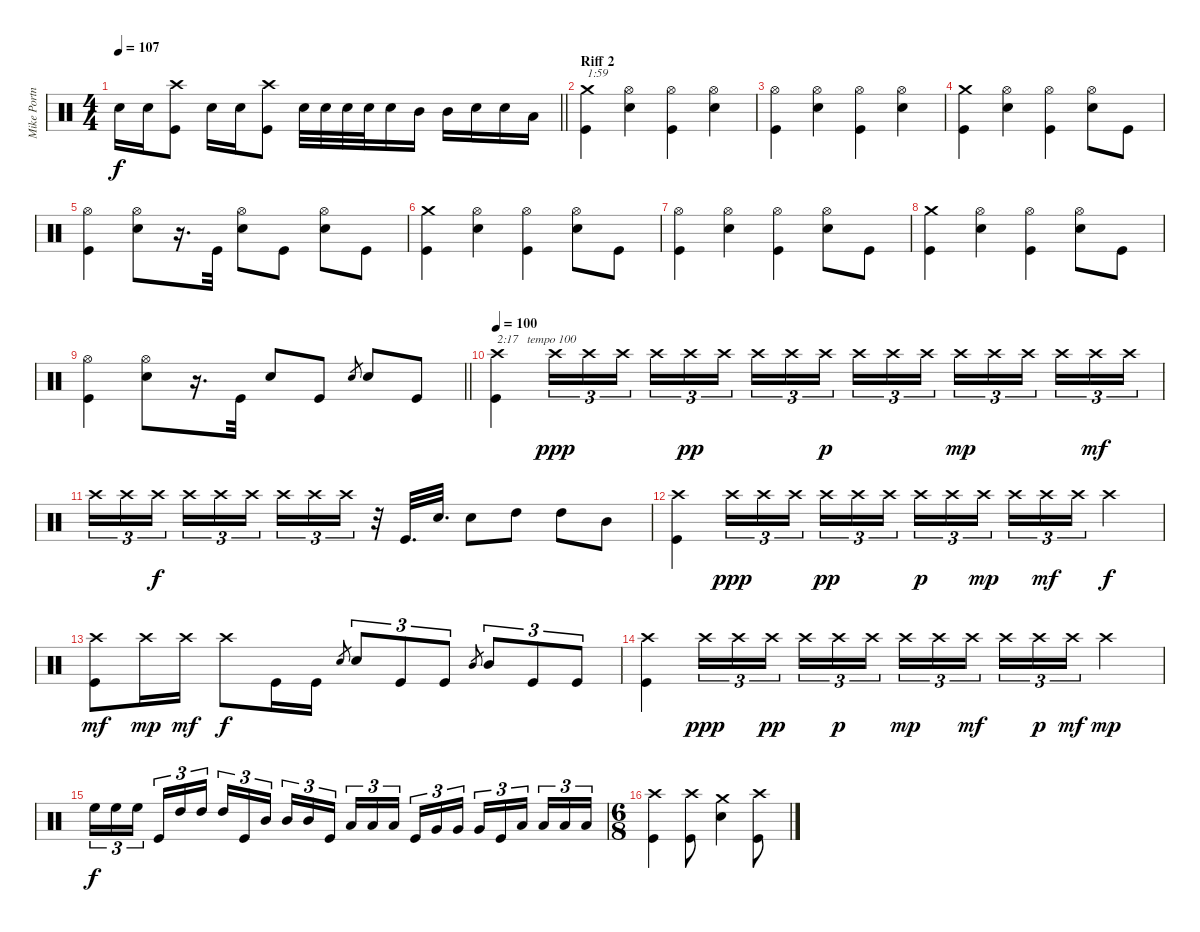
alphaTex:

\track ("Mike Portnoy" "Mike Portn") {instrument percussion}
\staff {score}
\articulation defaults
\ts (4 4)
\tempo 107
\clef neutral
\barLineRight lightlight
\ks c "Snare (hit) 2".16{dy f} "Snare (hit) 2".16
("Crash high (hit)" "Kick (hit)").8 "Snare (hit) 2".16 "Snare (hit) 2".16 ("Crash high (hit)" "Kick (hit)").8 "Snare (hit) 2".32 "Snare (hit) 2".32 "Snare (hit) 2".32 "Snare (hit) 2".32 "Snare (hit) 2".16 "Mid Tom (hit)".16 "Mid Tom (hit)".16 "Snare (hit) 2".16 "Snare (hit) 2".16 "Low Tom (hit)".16 |
\section ("" "Riff 2")
("Crash medium (hit)" "Kick (hit)").4{txt "1:59"} ("Hi-Hat (open)" "Snare (hit) 2").4 ("Hi-Hat (open)" "Kick (hit)").4 ("Hi-Hat (open)" "Snare (hit) 2").4 |
("Hi-Hat (open)" "Kick (hit)").4 ("Hi-Hat (open)" "Snare (hit) 2").4 ("Hi-Hat (open)" "Kick (hit)").4 ("Hi-Hat (open)" "Snare (hit) 2").4 |
("Crash medium (hit)" "Kick (hit)").4 ("Hi-Hat (open)" "Snare (hit) 2").4 ("Hi-Hat (open)" "Kick (hit)").4 ("Hi-Hat (open)" "Snare (hit) 2").8 "Kick (hit)".8 |
("Hi-Hat (open)" "Kick (hit)").4 ("Hi-Hat (open)" "Snare (hit) 2").8 r.16{d} "Kick (hit)".32 ("Hi-Hat (open)" "Snare (hit) 2").8 "Kick (hit)".8 ("Hi-Hat (open)" "Snare (hit) 2").8 "Kick (hit)".8 |
("Crash medium (hit)" "Kick (hit)").4 ("Hi-Hat (open)" "Snare (hit) 2").4 ("Hi-Hat (open)" "Kick (hit)").4 ("Hi-Hat (open)" "Snare (hit) 2").8 "Kick (hit)".8 |
("Hi-Hat (open)" "Kick (hit)").4 ("Hi-Hat (open)" "Snare (hit) 2").4 ("Hi-Hat (open)" "Kick (hit)").4 ("Hi-Hat (open)" "Snare (hit) 2").8 "Kick (hit)".8 |
("Crash medium (hit)" "Kick (hit)").4 ("Hi-Hat (open)" "Snare (hit) 2").4 ("Hi-Hat (open)" "Kick (hit)").4 ("Hi-Hat (open)" "Snare (hit) 2").8 "Kick (hit)".8 |
\barLineRight lightlight
("Hi-Hat (open)" "Kick (hit)").4 ("Hi-Hat (open)" "Snare (hit) 2").8 r.16{d} "Kick (hit)".32 "Snare (hit) 2".8 "Kick (hit)".8 "Snare (hit) 2".8{gr} "Snare (hit) 2".8 "Kick (hit)".8 |
\section ("" "")
\tempo 100
("Crash high (hit)" "Kick (hit)").4{txt "2:17   tempo 100"} "Crash high (hit)".16{tu (3 2) dy ppp} "Crash high (hit)".16{tu (3 2)} "Crash high (hit)".16{tu (3 2)} "Crash high (hit)".16{tu (3 2)} "Crash high (hit)".16{tu (3 2) dy pp} "Crash high (hit)".16{tu (3 2)} "Crash high (hit)".16{tu (3 2)} "Crash high (hit)".16{tu (3 2)} "Crash high (hit)".16{tu (3 2) dy p} "Crash high (hit)".16{tu (3 2)} "Crash high (hit)".16{tu (3 2)} "Crash high (hit)".16{tu (3 2)} "Crash high (hit)".16{tu (3 2) dy mp} "Crash high (hit)".16{tu (3 2)} "Crash high (hit)".16{tu (3 2)} "Crash high (hit)".16{tu (3 2)} "Crash high (hit)".16{tu (3 2) dy mf} "Crash high (hit)".16{tu (3 2)} |
"Crash high (hit)".16{tu (3 2)} "Crash high (hit)".16{tu (3 2)} "Crash high (hit)".16{tu (3 2) dy f} "Crash high (hit)".16{tu (3 2)} "Crash high (hit)".16{tu (3 2)} "Crash high (hit)".16{tu (3 2)} "Crash high (hit)".16{tu (3 2)} "Crash high (hit)".16{tu (3 2)} "Crash high (hit)".16{tu (3 2)} r.32 "Kick (hit)".32{d} "Snare (hit) 2".32{d} "Snare (hit) 2".8 "High Tom (hit)".8 "High Tom (hit)".8 "Mid Tom (hit)".8 |
("Crash high (hit)" "Kick (hit)").4 "Crash high (hit)".16{tu (3 2) dy ppp} "Crash high (hit)".16{tu (3 2)} "Crash high (hit)".16{tu (3 2)} "Crash high (hit)".16{tu (3 2) dy pp} "Crash high (hit)".16{tu (3 2)} "Crash high (hit)".16{tu (3 2)} "Crash high (hit)".16{tu (3 2) dy p} "Crash high (hit)".16{tu (3 2)} "Crash high (hit)".16{tu (3 2) dy mp} "Crash high (hit)".16{tu (3 2)} "Crash high (hit)".16{tu (3 2) dy mf} "Crash high (hit)".16{tu (3 2)} "Crash high (hit)".4{dy f} |
("Crash high (hit)" "Kick (hit)").8{dy mf} "Crash high (hit)".16{dy mp} "Crash high (hit)".16{dy mf} "Crash high (hit)".8{dy f} "Kick (hit)".16 "Kick (hit)".16 "Snare (hit) 2".8{gr} "Snare (hit) 2".8{tu (3 2)} "Kick (hit)".8{tu (3 2)} "Kick (hit)".8{tu (3 2)} "Mid Tom (hit)".8{gr} "Mid Tom (hit)".8{tu (3 2)} "Kick (hit)".8{tu (3 2)} "Kick (hit)".8{tu (3 2)} |
("Crash high (hit)" "Kick (hit)").4 "Crash high (hit)".16{tu (3 2) dy ppp} "Crash high (hit)".16{tu (3 2)} "Crash high (hit)".16{tu (3 2) dy pp} "Crash high (hit)".16{tu (3 2)} "Crash high (hit)".16{tu (3 2) dy p} "Crash high (hit)".16{tu (3 2)} "Crash high (hit)".16{tu (3 2) dy mp} "Crash high (hit)".16{tu (3 2)} "Crash high (hit)".16{tu (3 2) dy mf} "Crash high (hit)".16{tu (3 2)} "Crash high (hit)".16{tu (3 2) dy p} "Crash high (hit)".16{tu (3 2) dy mf} "Crash high (hit)".4{dy mp} |
"High Floor Tom (hit)".16{tu (3 2) dy f} "High Floor Tom (hit)".16{tu (3 2)} "High Floor Tom (hit)".16{tu (3 2)} "Kick (hit)".16{tu (3 2)} "High Tom (hit)".16{tu (3 2)} "High Tom (hit)".16{tu (3 2)} "High Tom (hit)".16{tu (3 2)} "Kick (hit)".16{tu (3 2)} "Mid Tom (hit)".16{tu (3 2)} "Mid Tom (hit)".16{tu (3 2)} "Mid Tom (hit)".16{tu (3 2)} "Kick (hit)".16{tu (3 2)} "Low Tom (hit)".16{tu (3 2)} "Low Tom (hit)".16{tu (3 2)} "Low Tom (hit)".16{tu (3 2)} "Kick (hit)".16{tu (3 2)} "Very Low Tom (hit)".16{tu (3 2)} "Very Low Tom (hit)".16{tu (3 2)} "Very Low Tom (hit)".16{tu (3 2)} "Kick (hit)".16{tu (3 2)} "Low Floor Tom (hit)".16{tu (3 2)} "Low Floor Tom (hit)".16{tu (3 2)} "Low Floor Tom (hit)".16{tu (3 2)} "Low Floor Tom (hit)".16{tu (3 2)} |
\ts (6 8)
("Crash high (hit)" "Kick (hit)").4 ("Crash high (hit)" "Kick (hit)").8 ("Crash medium (hit)" "Snare (hit) 2").4 ("Crash high (hit)" "Kick (hit)").8
